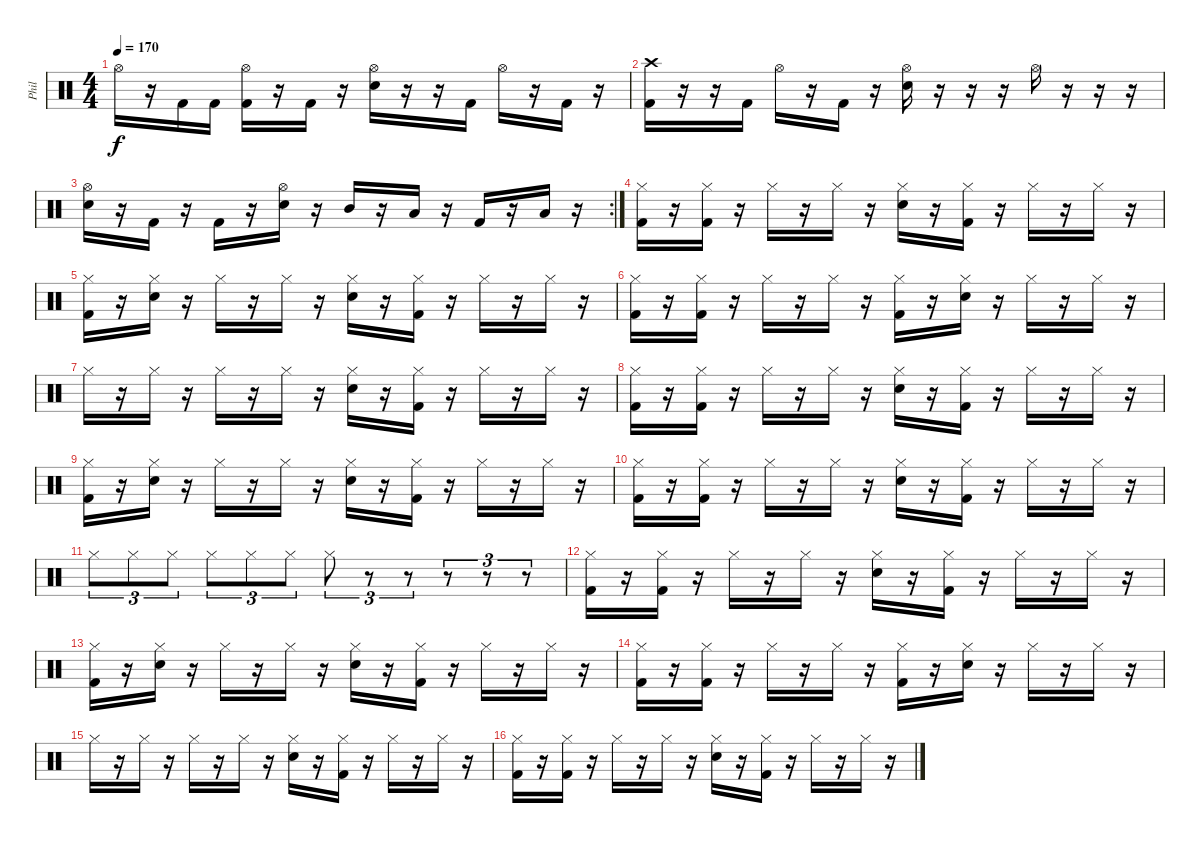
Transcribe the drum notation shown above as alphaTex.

\track ("Phil" "Phil") {instrument percussion}
\staff {score}
\articulation defaults
\ts (4 4)
\tempo 170
\clef neutral
\ks c "Hi-Hat (open)".16{dy f}
r.16 "Kick (hit) 2".16 "Kick (hit) 2".16 ("Hi-Hat (open)" "Kick (hit) 2").16 r.16 "Kick (hit) 2".16 r.16 ("Hi-Hat (open)" "Electric Snare (hit)").16 r.16 r.16 "Kick (hit) 2".16 "Hi-Hat (open)".16 r.16 "Kick (hit) 2".16 r.16 |
("Crash high (hit)" "Kick (hit) 2").16 r.16 r.16 "Kick (hit) 2".16 "Hi-Hat (open)".16 r.16 "Kick (hit) 2".16 r.16 ("Hi-Hat (open)" "Electric Snare (hit)").16 r.16 r.16 r.16 "Hi-Hat (open)".16 r.16 r.16 r.16 |
\rc 2
("Hi-Hat (open)" "Electric Snare (hit)").16 r.16 "Kick (hit) 2".16 r.16 "Kick (hit) 2".16 r.16 ("Hi-Hat (open)" "Electric Snare (hit)").16 r.16 "Mid Tom (hit)".16 r.16 "Low Tom (hit)".16 r.16 "Kick (hit) 2".16 r.16 "Low Tom (hit)".16 r.16 |
("Hi-Hat (closed)" "Kick (hit) 2").16 r.16 ("Hi-Hat (closed)" "Kick (hit) 2").16 r.16 "Hi-Hat (closed)".16 r.16 "Hi-Hat (closed)".16 r.16 ("Hi-Hat (closed)" "Electric Snare (hit)").16 r.16 ("Hi-Hat (closed)" "Kick (hit) 2").16 r.16 "Hi-Hat (closed)".16 r.16 "Hi-Hat (closed)".16 r.16 |
("Hi-Hat (closed)" "Kick (hit) 2").16 r.16 ("Hi-Hat (closed)" "Electric Snare (hit)").16 r.16 "Hi-Hat (closed)".16 r.16 "Hi-Hat (closed)".16 r.16 ("Hi-Hat (closed)" "Electric Snare (hit)").16 r.16 ("Hi-Hat (closed)" "Kick (hit) 2").16 r.16 "Hi-Hat (closed)".16 r.16 "Hi-Hat (closed)".16 r.16 |
("Hi-Hat (closed)" "Kick (hit) 2").16 r.16 ("Hi-Hat (closed)" "Kick (hit) 2").16 r.16 "Hi-Hat (closed)".16 r.16 "Hi-Hat (closed)".16 r.16 ("Hi-Hat (closed)" "Kick (hit) 2").16 r.16 ("Hi-Hat (closed)" "Electric Snare (hit)").16 r.16 "Hi-Hat (closed)".16 r.16 "Hi-Hat (closed)".16 r.16 |
"Hi-Hat (closed)".16 r.16 "Hi-Hat (closed)".16 r.16 "Hi-Hat (closed)".16 r.16 "Hi-Hat (closed)".16 r.16 ("Hi-Hat (closed)" "Electric Snare (hit)").16 r.16 ("Hi-Hat (closed)" "Kick (hit) 2").16 r.16 "Hi-Hat (closed)".16 r.16 "Hi-Hat (closed)".16 r.16 |
("Hi-Hat (closed)" "Kick (hit) 2").16 r.16 ("Hi-Hat (closed)" "Kick (hit) 2").16 r.16 "Hi-Hat (closed)".16 r.16 "Hi-Hat (closed)".16 r.16 ("Hi-Hat (closed)" "Electric Snare (hit)").16 r.16 ("Hi-Hat (closed)" "Kick (hit) 2").16 r.16 "Hi-Hat (closed)".16 r.16 "Hi-Hat (closed)".16 r.16 |
("Hi-Hat (closed)" "Kick (hit) 2").16 r.16 ("Hi-Hat (closed)" "Electric Snare (hit)").16 r.16 "Hi-Hat (closed)".16 r.16 "Hi-Hat (closed)".16 r.16 ("Hi-Hat (closed)" "Electric Snare (hit)").16 r.16 ("Hi-Hat (closed)" "Kick (hit) 2").16 r.16 "Hi-Hat (closed)".16 r.16 "Hi-Hat (closed)".16 r.16 |
("Hi-Hat (closed)" "Kick (hit) 2").16 r.16 ("Hi-Hat (closed)" "Kick (hit) 2").16 r.16 "Hi-Hat (closed)".16 r.16 "Hi-Hat (closed)".16 r.16 ("Hi-Hat (closed)" "Electric Snare (hit)").16 r.16 ("Hi-Hat (closed)" "Kick (hit) 2").16 r.16 "Hi-Hat (closed)".16 r.16 "Hi-Hat (closed)".16 r.16 |
"Hi-Hat (closed)".8{tu (3 2)} "Hi-Hat (closed)".8{tu (3 2)} "Hi-Hat (closed)".8{tu (3 2)} "Hi-Hat (closed)".8{tu (3 2)} "Hi-Hat (closed)".8{tu (3 2)} "Hi-Hat (closed)".8{tu (3 2)} "Hi-Hat (closed)".8{tu (3 2)} r.8{tu (3 2)} r.8{tu (3 2)} r.8{tu (3 2)} r.8{tu (3 2)} r.8{tu (3 2)} |
("Hi-Hat (closed)" "Kick (hit) 2").16 r.16 ("Hi-Hat (closed)" "Kick (hit) 2").16 r.16 "Hi-Hat (closed)".16 r.16 "Hi-Hat (closed)".16 r.16 ("Hi-Hat (closed)" "Electric Snare (hit)").16 r.16 ("Hi-Hat (closed)" "Kick (hit) 2").16 r.16 "Hi-Hat (closed)".16 r.16 "Hi-Hat (closed)".16 r.16 |
("Hi-Hat (closed)" "Kick (hit) 2").16 r.16 ("Hi-Hat (closed)" "Electric Snare (hit)").16 r.16 "Hi-Hat (closed)".16 r.16 "Hi-Hat (closed)".16 r.16 ("Hi-Hat (closed)" "Electric Snare (hit)").16 r.16 ("Hi-Hat (closed)" "Kick (hit) 2").16 r.16 "Hi-Hat (closed)".16 r.16 "Hi-Hat (closed)".16 r.16 |
("Hi-Hat (closed)" "Kick (hit) 2").16 r.16 ("Hi-Hat (closed)" "Kick (hit) 2").16 r.16 "Hi-Hat (closed)".16 r.16 "Hi-Hat (closed)".16 r.16 ("Hi-Hat (closed)" "Kick (hit) 2").16 r.16 ("Hi-Hat (closed)" "Electric Snare (hit)").16 r.16 "Hi-Hat (closed)".16 r.16 "Hi-Hat (closed)".16 r.16 |
"Hi-Hat (closed)".16 r.16 "Hi-Hat (closed)".16 r.16 "Hi-Hat (closed)".16 r.16 "Hi-Hat (closed)".16 r.16 ("Hi-Hat (closed)" "Electric Snare (hit)").16 r.16 ("Hi-Hat (closed)" "Kick (hit) 2").16 r.16 "Hi-Hat (closed)".16 r.16 "Hi-Hat (closed)".16 r.16 |
("Hi-Hat (closed)" "Kick (hit) 2").16 r.16 ("Hi-Hat (closed)" "Kick (hit) 2").16 r.16 "Hi-Hat (closed)".16 r.16 "Hi-Hat (closed)".16 r.16 ("Hi-Hat (closed)" "Electric Snare (hit)").16 r.16 ("Hi-Hat (closed)" "Kick (hit) 2").16 r.16 "Hi-Hat (closed)".16 r.16 "Hi-Hat (closed)".16 r.16
